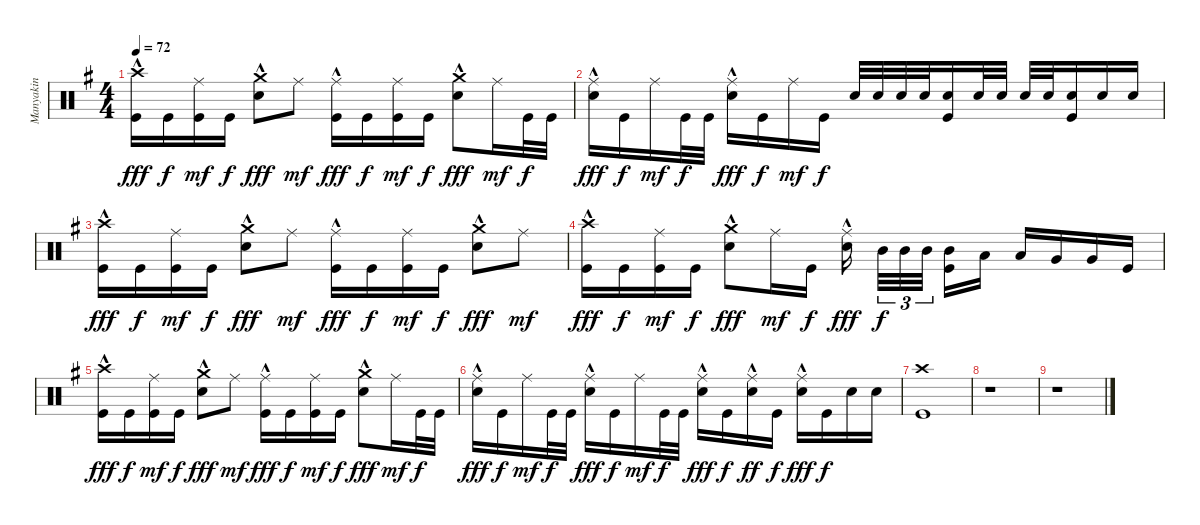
\track ("Manyakin" "Manyakin") {instrument percussion}
\staff {score}
\articulation defaults
\ts (4 4)
\tempo 72
\clef neutral
\ks eminor
("Crash high (hit)"{hac} "Kick (hit)").16{dy fff beam Down} "Kick (hit)".16{dy f beam Down} ("Ride (middle)" "Kick (hit)").16{dy mf beam Down} "Kick (hit)".16{dy f beam Down} ("Crash medium (hit)"{hac} "Snare (hit) 2").8{dy fff beam Down} "Ride (middle)".8{dy mf beam Down} ("Ride (middle)"{hac} "Kick (hit)").16{dy fff beam Down} "Kick (hit)".16{dy f beam Down} ("Ride (middle)" "Kick (hit)").16{dy mf beam Down} "Kick (hit)".16{dy f beam Down} ("Crash medium (hit)"{hac} "Snare (hit) 2").8{dy fff beam Down} "Ride (middle)".16{dy mf beam Down} "Kick (hit)".32{dy f beam Down} "Kick (hit)".32{beam Down} |
("Ride (middle)"{hac} "Snare (hit) 2").16{dy fff beam Down} "Kick (hit)".16{dy f beam Down} "Ride (middle)".16{dy mf beam Down} "Kick (hit)".32{dy f beam Down} "Kick (hit)".32{beam Down} ("Ride (middle)"{hac} "Snare (hit) 2").16{dy fff beam Down} "Kick (hit)".16{dy f beam Down} "Ride (middle)".16{dy mf beam Down} "Kick (hit)".16{dy f beam Down} "Snare (hit) 2".32{beam Up} "Snare (hit) 2".32{beam Up} "Snare (hit) 2".32{beam Up} "Snare (hit) 2".32{beam Up} ("Snare (hit) 2" "Kick (hit)").16{beam Up} "Snare (hit) 2".32{beam Up} "Snare (hit) 2".32{beam Up} "Snare (hit) 2".32{beam Up} "Snare (hit) 2".32{beam Up} ("Snare (hit) 2" "Kick (hit)").16{beam Up} "Snare (hit) 2".16{beam Up} "Snare (hit) 2".16{beam Up} |
("Crash high (hit)"{hac} "Kick (hit)").16{dy fff beam Down} "Kick (hit)".16{dy f beam Down} ("Ride (middle)" "Kick (hit)").16{dy mf beam Down} "Kick (hit)".16{dy f beam Down} ("Crash medium (hit)"{hac} "Snare (hit) 2").8{dy fff beam Down} "Ride (middle)".8{dy mf beam Down} ("Ride (middle)"{hac} "Kick (hit)").16{dy fff beam Down} "Kick (hit)".16{dy f beam Down} ("Ride (middle)" "Kick (hit)").16{dy mf beam Down} "Kick (hit)".16{dy f beam Down} ("Crash medium (hit)"{hac} "Snare (hit) 2").8{dy fff beam Down} "Ride (middle)".8{dy mf beam Down} |
("Crash high (hit)"{hac} "Kick (hit)").16{dy fff beam Down} "Kick (hit)".16{dy f beam Down} ("Ride (middle)" "Kick (hit)").16{dy mf beam Down} "Kick (hit)".16{dy f beam Down} ("Crash medium (hit)"{hac} "Snare (hit) 2").8{dy fff beam Down} "Ride (middle)".16{dy mf beam Down} "Kick (hit)".16{dy f beam Down} ("Ride (middle)"{hac} "Snare (hit) 2").16{dy fff beam Down beam splitsecondary} "Mid Tom (hit)".32{tu (3 2) dy f beam Down} "Mid Tom (hit)".32{tu (3 2) beam Down} "Mid Tom (hit)".32{tu (3 2) beam Down beam splitsecondary} ("Mid Tom (hit)" "Kick (hit)").16{beam Down} "Low Tom (hit)".16{beam Down} "Low Tom (hit)".16{beam Up} "Very Low Tom (hit)".16{beam Up} "Very Low Tom (hit)".16{beam Up} "Kick (hit)".16{beam Up} |
("Crash high (hit)"{hac} "Kick (hit)").16{dy fff beam Down} "Kick (hit)".16{dy f beam Down} ("Ride (middle)" "Kick (hit)").16{dy mf beam Down} "Kick (hit)".16{dy f beam Down} ("Crash medium (hit)"{hac} "Snare (hit) 2").8{dy fff beam Down} "Ride (middle)".8{dy mf beam Down} ("Ride (middle)"{hac} "Kick (hit)").16{dy fff beam Down} "Kick (hit)".16{dy f beam Down} ("Ride (middle)" "Kick (hit)").16{dy mf beam Down} "Kick (hit)".16{dy f beam Down} ("Crash medium (hit)"{hac} "Snare (hit) 2").8{dy fff beam Down} "Ride (middle)".16{dy mf beam Down} "Kick (hit)".32{dy f beam Down} "Kick (hit)".32{beam Down} |
("Ride (middle)"{hac} "Snare (hit) 2").16{dy fff beam Down} "Kick (hit)".16{dy f beam Down} "Ride (middle)".16{dy mf beam Down} "Kick (hit)".32{dy f beam Down} "Kick (hit)".32{beam Down} ("Ride (middle)"{hac} "Snare (hit) 2").16{dy fff beam Down} "Kick (hit)".16{dy f beam Down} "Ride (middle)".16{dy mf beam Down} "Kick (hit)".32{dy f beam Down} "Kick (hit)".32{beam Down} ("Ride (middle)"{hac} "Snare (hit) 2").16{dy fff beam Down} "Kick (hit)".16{dy f beam Down} ("Ride (middle)"{hac} "Snare (hit) 2").16{dy ff beam Down} "Kick (hit)".16{dy f beam Down} ("Ride (middle)"{hac} "Snare (hit) 2").16{dy fff beam Down} "Kick (hit)".16{dy f beam Down} "Snare (hit) 2".16{beam Down} "Snare (hit) 2".16{beam Down} |
("Crash high (hit)" "Kick (hit)").1 |
r.1 |
r.1
